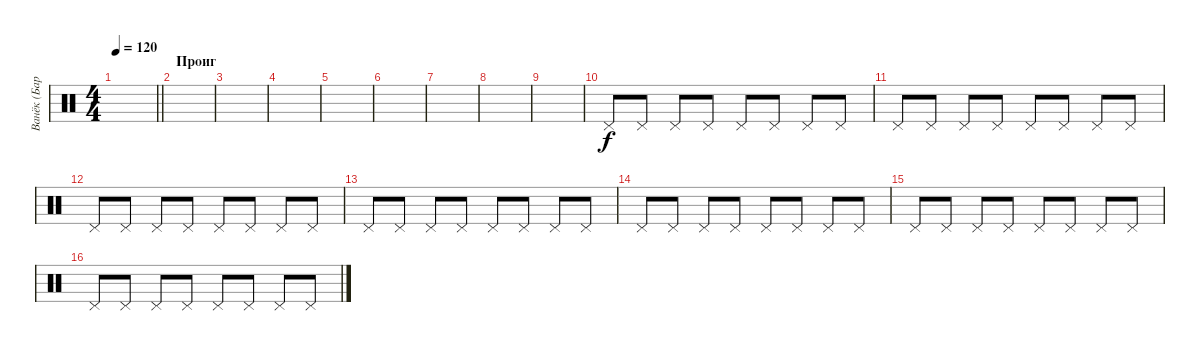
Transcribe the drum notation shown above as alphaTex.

\track ("Ванёк (Барабанщик)" "Ванёк (Бар") {instrument percussion}
\staff {score}
\articulation defaults
\ts (4 4)
\tempo 120
\clef neutral
\barLineRight lightlight
\ks c
|
\section ("" "Проиг")
|
|
|
|
|
|
|
|
"Pedal Hi-Hat (hit)".8 "Pedal Hi-Hat (hit)".8 "Pedal Hi-Hat (hit)".8 "Pedal Hi-Hat (hit)".8 "Pedal Hi-Hat (hit)".8 "Pedal Hi-Hat (hit)".8 "Pedal Hi-Hat (hit)".8 "Pedal Hi-Hat (hit)".8 |
"Pedal Hi-Hat (hit)".8 "Pedal Hi-Hat (hit)".8 "Pedal Hi-Hat (hit)".8 "Pedal Hi-Hat (hit)".8 "Pedal Hi-Hat (hit)".8 "Pedal Hi-Hat (hit)".8 "Pedal Hi-Hat (hit)".8 "Pedal Hi-Hat (hit)".8 |
"Pedal Hi-Hat (hit)".8 "Pedal Hi-Hat (hit)".8 "Pedal Hi-Hat (hit)".8 "Pedal Hi-Hat (hit)".8 "Pedal Hi-Hat (hit)".8 "Pedal Hi-Hat (hit)".8 "Pedal Hi-Hat (hit)".8 "Pedal Hi-Hat (hit)".8 |
"Pedal Hi-Hat (hit)".8 "Pedal Hi-Hat (hit)".8 "Pedal Hi-Hat (hit)".8 "Pedal Hi-Hat (hit)".8 "Pedal Hi-Hat (hit)".8 "Pedal Hi-Hat (hit)".8 "Pedal Hi-Hat (hit)".8 "Pedal Hi-Hat (hit)".8 |
"Pedal Hi-Hat (hit)".8 "Pedal Hi-Hat (hit)".8 "Pedal Hi-Hat (hit)".8 "Pedal Hi-Hat (hit)".8 "Pedal Hi-Hat (hit)".8 "Pedal Hi-Hat (hit)".8 "Pedal Hi-Hat (hit)".8 "Pedal Hi-Hat (hit)".8 |
"Pedal Hi-Hat (hit)".8 "Pedal Hi-Hat (hit)".8 "Pedal Hi-Hat (hit)".8 "Pedal Hi-Hat (hit)".8 "Pedal Hi-Hat (hit)".8 "Pedal Hi-Hat (hit)".8 "Pedal Hi-Hat (hit)".8 "Pedal Hi-Hat (hit)".8 |
"Pedal Hi-Hat (hit)".8 "Pedal Hi-Hat (hit)".8 "Pedal Hi-Hat (hit)".8 "Pedal Hi-Hat (hit)".8 "Pedal Hi-Hat (hit)".8 "Pedal Hi-Hat (hit)".8 "Pedal Hi-Hat (hit)".8 "Pedal Hi-Hat (hit)".8
